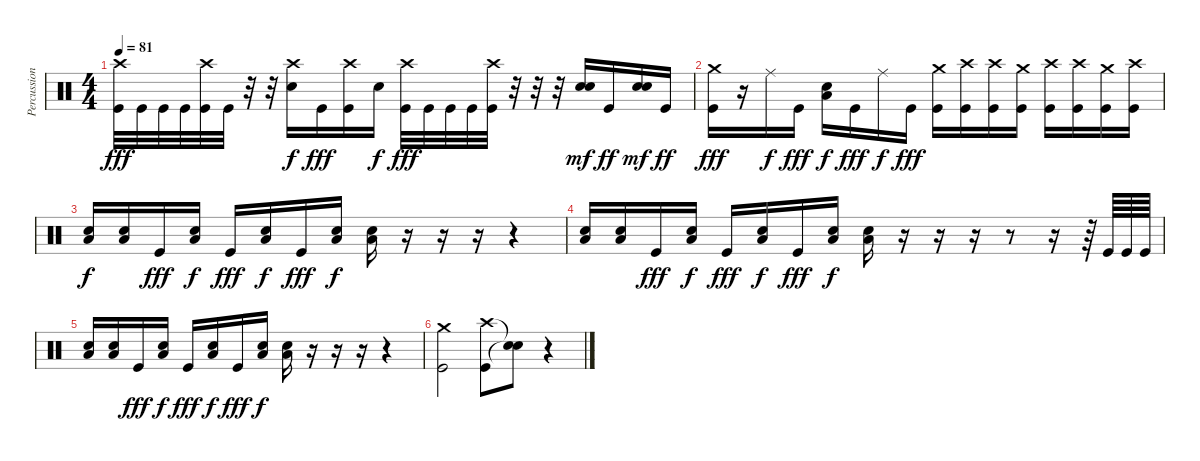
\track ("Percussion" "Percussion") {instrument percussion}
\staff {score}
\articulation defaults
\ts (4 4)
\tempo 81
\clef neutral
\ks c
("Crash high (hit)" "Kick (hit)").32{dy fff} "Kick (hit)".32 "Kick (hit)".32 "Kick (hit)".32 ("Crash high (hit)" "Kick (hit)").32 "Kick (hit)".32 r.32 r.32 ("Crash high (hit)" "Electric Snare (hit)").16{dy f} "Kick (hit)".16{dy fff} ("Crash high (hit)" "Kick (hit)").16 "Electric Snare (hit)".16{dy f} ("Crash high (hit)" "Kick (hit)").32{dy fff} "Kick (hit)".32 "Kick (hit)".32 "Kick (hit)".32 ("Crash high (hit)" "Kick (hit)").32 r.32 r.32 r.32 ("Electric Snare (hit)" "Electric Snare (hit)").16{dy mf} "Kick (hit)".16{dy ff} ("Electric Snare (hit)" "Electric Snare (hit)").16{dy mf} "Kick (hit)".16{dy ff} |
("Crash medium (hit)" "Kick (hit)").16{dy fff} r.16 "Ride (middle)".16{dy f} "Kick (hit)".16{dy fff} ("Electric Snare (hit)" "Low Floor Tom (hit)").16{dy f} "Kick (hit)".16{dy fff} "Ride (middle)".16{dy f} "Kick (hit)".16{dy fff} ("Crash medium (hit)" "Kick (hit)").16 ("Crash high (hit)" "Kick (hit)").16 ("Crash high (hit)" "Kick (hit)").16 ("Crash medium (hit)" "Kick (hit)").16 ("Crash high (hit)" "Kick (hit)").16 ("Crash high (hit)" "Kick (hit)").16 ("Crash medium (hit)" "Kick (hit)").16 ("Crash high (hit)" "Kick (hit)").16 |
("Electric Snare (hit)" "Low Floor Tom (hit)").16{dy f} ("Electric Snare (hit)" "Low Floor Tom (hit)").16 "Kick (hit)".16{dy fff} ("Electric Snare (hit)" "Low Floor Tom (hit)").16{dy f} "Kick (hit)".16{dy fff} ("Electric Snare (hit)" "Low Floor Tom (hit)").16{dy f} "Kick (hit)".16{dy fff} ("Electric Snare (hit)" "Low Floor Tom (hit)").16{dy f} ("Electric Snare (hit)" "Low Floor Tom (hit)").16 r.16 r.16 r.16 r.4 |
("Electric Snare (hit)" "Low Floor Tom (hit)").16 ("Electric Snare (hit)" "Low Floor Tom (hit)").16 "Kick (hit)".16{dy fff} ("Electric Snare (hit)" "Low Floor Tom (hit)").16{dy f} "Kick (hit)".16{dy fff} ("Electric Snare (hit)" "Low Floor Tom (hit)").16{dy f} "Kick (hit)".16{dy fff} ("Electric Snare (hit)" "Low Floor Tom (hit)").16{dy f} ("Electric Snare (hit)" "Low Floor Tom (hit)").16 r.16 r.16 r.16 r.8 r.16 r.64 "Kick (hit)".64 "Kick (hit)".64 "Kick (hit)".64 |
("Electric Snare (hit)" "Low Floor Tom (hit)").16 ("Electric Snare (hit)" "Low Floor Tom (hit)").16 "Kick (hit)".16{dy fff} ("Electric Snare (hit)" "Low Floor Tom (hit)").16{dy f} "Kick (hit)".16{dy fff} ("Electric Snare (hit)" "Low Floor Tom (hit)").16{dy f} "Kick (hit)".16{dy fff} ("Electric Snare (hit)" "Low Floor Tom (hit)").16{dy f} ("Electric Snare (hit)" "Low Floor Tom (hit)").16 r.16 r.16 r.16 r.4 |
("Crash medium (hit)" "Kick (hit)").2 ("Crash high (hit)" "Kick (hit)").8 ("Snare (hit)"{t} "Snare (hit)"{t}).8{volume 0} r.4
